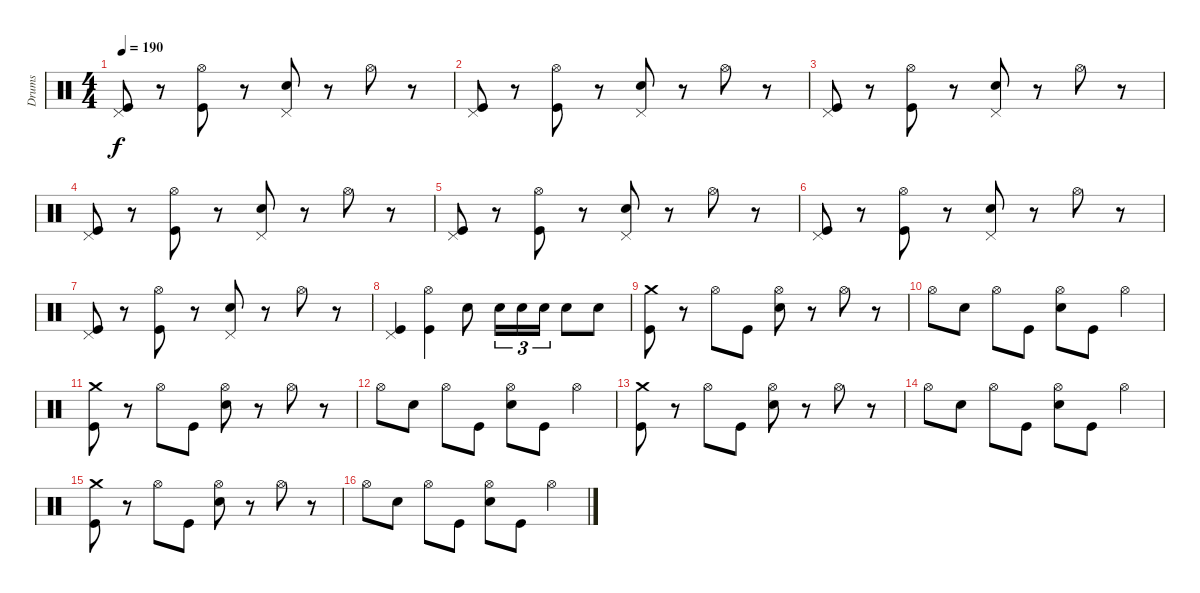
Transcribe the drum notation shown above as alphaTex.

\track ("Drums" "Drums") {instrument percussion}
\staff {score}
\articulation defaults
\ts (4 4)
\tempo 190
\clef neutral
\ks c
("Kick (hit)" "Pedal Hi-Hat (hit)").8{dy f} r.8 ("Kick (hit)" "Hi-Hat (open)").8 r.8 ("Electric Snare (hit)" "Pedal Hi-Hat (hit)").8 r.8 "Hi-Hat (open)".8 r.8 |
("Kick (hit)" "Pedal Hi-Hat (hit)").8 r.8 ("Kick (hit)" "Hi-Hat (open)").8 r.8 ("Electric Snare (hit)" "Pedal Hi-Hat (hit)").8 r.8 "Hi-Hat (open)".8 r.8 |
("Kick (hit)" "Pedal Hi-Hat (hit)").8 r.8 ("Kick (hit)" "Hi-Hat (open)").8 r.8 ("Electric Snare (hit)" "Pedal Hi-Hat (hit)").8 r.8 "Hi-Hat (open)".8 r.8 |
("Kick (hit)" "Pedal Hi-Hat (hit)").8 r.8 ("Kick (hit)" "Hi-Hat (open)").8 r.8 ("Electric Snare (hit)" "Pedal Hi-Hat (hit)").8 r.8 "Hi-Hat (open)".8 r.8 |
("Kick (hit)" "Pedal Hi-Hat (hit)").8 r.8 ("Kick (hit)" "Hi-Hat (open)").8 r.8 ("Electric Snare (hit)" "Pedal Hi-Hat (hit)").8 r.8 "Hi-Hat (open)".8 r.8 |
("Kick (hit)" "Pedal Hi-Hat (hit)").8 r.8 ("Kick (hit)" "Hi-Hat (open)").8 r.8 ("Electric Snare (hit)" "Pedal Hi-Hat (hit)").8 r.8 "Hi-Hat (open)".8 r.8 |
("Kick (hit)" "Pedal Hi-Hat (hit)").8 r.8 ("Kick (hit)" "Hi-Hat (open)").8 r.8 ("Electric Snare (hit)" "Pedal Hi-Hat (hit)").8 r.8 "Hi-Hat (open)".8 r.8 |
("Kick (hit)" "Pedal Hi-Hat (hit)").4 ("Kick (hit)" "Hi-Hat (open)").4 "Electric Snare (hit)".8 "Electric Snare (hit)".16{tu (3 2)} "Electric Snare (hit)".16{tu (3 2)} "Electric Snare (hit)".16{tu (3 2)} "Electric Snare (hit)".8 "Electric Snare (hit)".8 |
("Crash medium (hit)" "Kick (hit)").8 r.8 "Hi-Hat (open)".8 "Kick (hit)".8 ("Electric Snare (hit)" "Hi-Hat (open)").8 r.8 "Hi-Hat (open)".8 r.8 |
"Hi-Hat (open)".8 "Electric Snare (hit)".8 "Hi-Hat (open)".8 "Kick (hit)".8 ("Electric Snare (hit)" "Hi-Hat (open)").8 "Kick (hit)".8 "Hi-Hat (open)".4 |
("Crash medium (hit)" "Kick (hit)").8 r.8 "Hi-Hat (open)".8 "Kick (hit)".8 ("Electric Snare (hit)" "Hi-Hat (open)").8 r.8 "Hi-Hat (open)".8 r.8 |
"Hi-Hat (open)".8 "Electric Snare (hit)".8 "Hi-Hat (open)".8 "Kick (hit)".8 ("Electric Snare (hit)" "Hi-Hat (open)").8 "Kick (hit)".8 "Hi-Hat (open)".4 |
("Crash medium (hit)" "Kick (hit)").8 r.8 "Hi-Hat (open)".8 "Kick (hit)".8 ("Electric Snare (hit)" "Hi-Hat (open)").8 r.8 "Hi-Hat (open)".8 r.8 |
"Hi-Hat (open)".8 "Electric Snare (hit)".8 "Hi-Hat (open)".8 "Kick (hit)".8 ("Electric Snare (hit)" "Hi-Hat (open)").8 "Kick (hit)".8 "Hi-Hat (open)".4 |
("Crash medium (hit)" "Kick (hit)").8 r.8 "Hi-Hat (open)".8 "Kick (hit)".8 ("Electric Snare (hit)" "Hi-Hat (open)").8 r.8 "Hi-Hat (open)".8 r.8 |
"Hi-Hat (open)".8 "Electric Snare (hit)".8 "Hi-Hat (open)".8 "Kick (hit)".8 ("Electric Snare (hit)" "Hi-Hat (open)").8 "Kick (hit)".8 "Hi-Hat (open)".4
